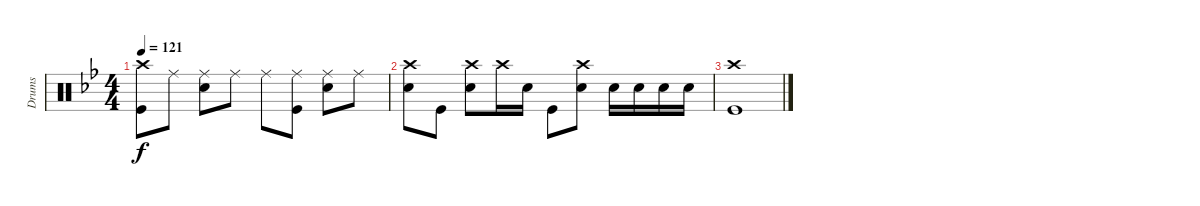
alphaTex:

\track ("Drums" "Drums") {instrument percussion}
\staff {score}
\articulation defaults
\ts (4 4)
\tempo 121
\clef neutral
\ks bb
("Crash high (hit)" "Kick (hit)").8{dy f} "Ride (middle)".8 ("Ride (middle)" "Snare (hit) 2").8 "Ride (middle)".8 "Ride (middle)".8 ("Kick (hit)" "Ride (middle)").8 ("Snare (hit) 2" "Ride (middle)").8 "Ride (middle)".8 |
("Crash high (hit)" "Snare (hit) 2").8 "Kick (hit)".8 ("Crash high (hit)" "Snare (hit) 2").8 "Crash high (hit)".16 "Snare (hit) 2".16 "Kick (hit)".8 ("Snare (hit) 2" "Crash high (hit)").8 "Snare (hit) 2".16 "Snare (hit) 2".16 "Snare (hit) 2".16 "Snare (hit) 2".16 |
("Kick (hit)" "Crash high (hit)").1
